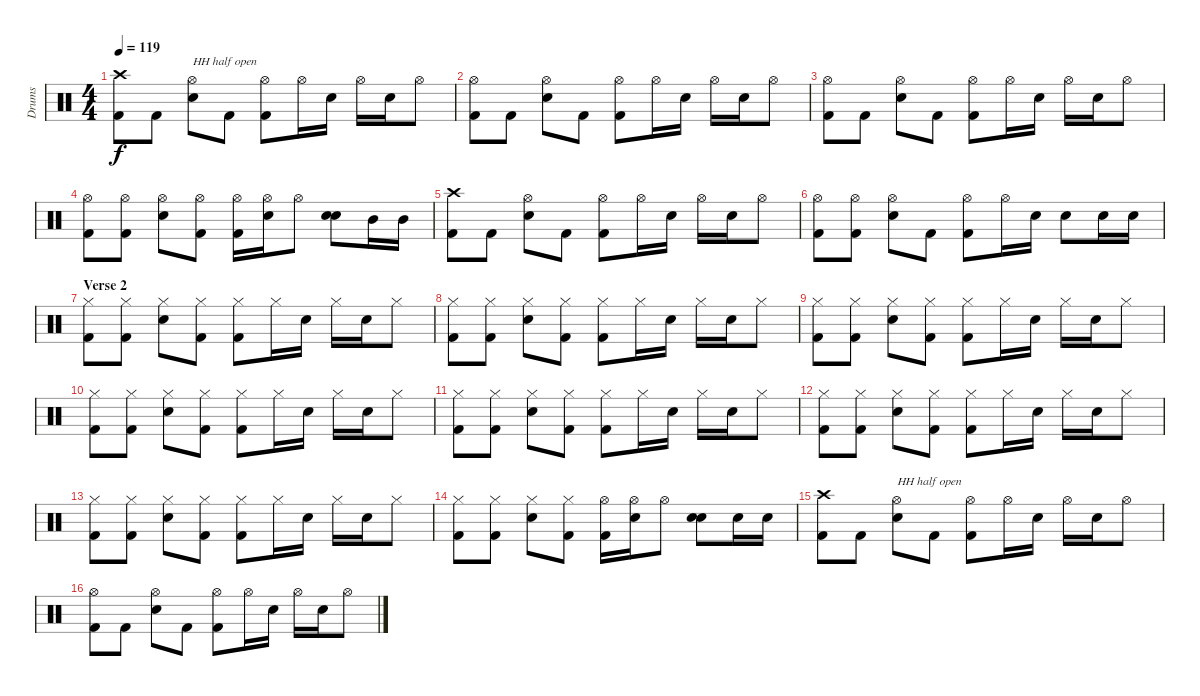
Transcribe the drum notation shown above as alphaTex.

\track ("Drums" "Drums") {instrument percussion}
\staff {score}
\articulation defaults
\ts (4 4)
\tempo 119
\clef neutral
\ks c
("Crash high (hit)" "Kick (hit) 2").8{dy f} "Kick (hit) 2".8 ("Hi-Hat (open)" "Electric Snare (hit)").8{txt "HH half open"} "Kick (hit) 2".8 ("Hi-Hat (open)" "Kick (hit) 2").8 "Hi-Hat (open)".16 "Electric Snare (hit)".16 "Hi-Hat (open)".16 "Electric Snare (hit)".16 "Hi-Hat (open)".8 |
("Hi-Hat (open)" "Kick (hit) 2").8 "Kick (hit) 2".8 ("Hi-Hat (open)" "Electric Snare (hit)").8 "Kick (hit) 2".8 ("Hi-Hat (open)" "Kick (hit) 2").8 "Hi-Hat (open)".16 "Electric Snare (hit)".16 "Hi-Hat (open)".16 "Electric Snare (hit)".16 "Hi-Hat (open)".8 |
("Hi-Hat (open)" "Kick (hit) 2").8 "Kick (hit) 2".8 ("Hi-Hat (open)" "Electric Snare (hit)").8 "Kick (hit) 2".8 ("Hi-Hat (open)" "Kick (hit) 2").8 "Hi-Hat (open)".16 "Electric Snare (hit)".16 "Hi-Hat (open)".16 "Electric Snare (hit)".16 "Hi-Hat (open)".8 |
("Hi-Hat (open)" "Kick (hit) 2").8 ("Hi-Hat (open)" "Kick (hit) 2").8 ("Hi-Hat (open)" "Electric Snare (hit)").8 ("Hi-Hat (open)" "Kick (hit) 2").8 ("Hi-Hat (open)" "Kick (hit) 2").16 ("Hi-Hat (open)" "Electric Snare (hit)").16 "Hi-Hat (open)".8 ("Electric Snare (hit)" "Electric Snare (hit)").8 "Mid Tom (hit)".16 "Mid Tom (hit)".16 |
("Crash high (hit)" "Kick (hit) 2").8 "Kick (hit) 2".8 ("Hi-Hat (open)" "Electric Snare (hit)").8 "Kick (hit) 2".8 ("Hi-Hat (open)" "Kick (hit) 2").8 "Hi-Hat (open)".16 "Electric Snare (hit)".16 "Hi-Hat (open)".16 "Electric Snare (hit)".16 "Hi-Hat (open)".8 |
("Hi-Hat (open)" "Kick (hit) 2").8 ("Hi-Hat (open)" "Kick (hit) 2").8 ("Hi-Hat (open)" "Electric Snare (hit)").8 "Kick (hit) 2".8 ("Hi-Hat (open)" "Kick (hit) 2").8 "Hi-Hat (open)".16 "Electric Snare (hit)".16 "Electric Snare (hit)".8 "Electric Snare (hit)".16 "Electric Snare (hit)".16 |
\section ("" "Verse 2")
("Hi-Hat (closed)" "Kick (hit) 2").8 ("Hi-Hat (closed)" "Kick (hit) 2").8 ("Hi-Hat (closed)" "Electric Snare (hit)").8 ("Hi-Hat (closed)" "Kick (hit) 2").8 ("Hi-Hat (closed)" "Kick (hit) 2").8 "Hi-Hat (closed)".16 "Electric Snare (hit)".16 "Hi-Hat (closed)".16 "Electric Snare (hit)".16 "Hi-Hat (closed)".8 |
("Hi-Hat (closed)" "Kick (hit) 2").8 ("Hi-Hat (closed)" "Kick (hit) 2").8 ("Hi-Hat (closed)" "Electric Snare (hit)").8 ("Hi-Hat (closed)" "Kick (hit) 2").8 ("Hi-Hat (closed)" "Kick (hit) 2").8 "Hi-Hat (closed)".16 "Electric Snare (hit)".16 "Hi-Hat (closed)".16 "Electric Snare (hit)".16 "Hi-Hat (closed)".8 |
("Hi-Hat (closed)" "Kick (hit) 2").8 ("Hi-Hat (closed)" "Kick (hit) 2").8 ("Hi-Hat (closed)" "Electric Snare (hit)").8 ("Hi-Hat (closed)" "Kick (hit) 2").8 ("Hi-Hat (closed)" "Kick (hit) 2").8 "Hi-Hat (closed)".16 "Electric Snare (hit)".16 "Hi-Hat (closed)".16 "Electric Snare (hit)".16 "Hi-Hat (closed)".8 |
("Hi-Hat (closed)" "Kick (hit) 2").8 ("Hi-Hat (closed)" "Kick (hit) 2").8 ("Hi-Hat (closed)" "Electric Snare (hit)").8 ("Hi-Hat (closed)" "Kick (hit) 2").8 ("Hi-Hat (closed)" "Kick (hit) 2").8 "Hi-Hat (closed)".16 "Electric Snare (hit)".16 "Hi-Hat (closed)".16 "Electric Snare (hit)".16 "Hi-Hat (closed)".8 |
("Hi-Hat (closed)" "Kick (hit) 2").8 ("Hi-Hat (closed)" "Kick (hit) 2").8 ("Hi-Hat (closed)" "Electric Snare (hit)").8 ("Hi-Hat (closed)" "Kick (hit) 2").8 ("Hi-Hat (closed)" "Kick (hit) 2").8 "Hi-Hat (closed)".16 "Electric Snare (hit)".16 "Hi-Hat (closed)".16 "Electric Snare (hit)".16 "Hi-Hat (closed)".8 |
("Hi-Hat (closed)" "Kick (hit) 2").8 ("Hi-Hat (closed)" "Kick (hit) 2").8 ("Hi-Hat (closed)" "Electric Snare (hit)").8 ("Hi-Hat (closed)" "Kick (hit) 2").8 ("Hi-Hat (closed)" "Kick (hit) 2").8 "Hi-Hat (closed)".16 "Electric Snare (hit)".16 "Hi-Hat (closed)".16 "Electric Snare (hit)".16 "Hi-Hat (closed)".8 |
("Hi-Hat (closed)" "Kick (hit) 2").8 ("Hi-Hat (closed)" "Kick (hit) 2").8 ("Hi-Hat (closed)" "Electric Snare (hit)").8 ("Hi-Hat (closed)" "Kick (hit) 2").8 ("Hi-Hat (closed)" "Kick (hit) 2").8 "Hi-Hat (closed)".16 "Electric Snare (hit)".16 "Hi-Hat (closed)".16 "Electric Snare (hit)".16 "Hi-Hat (closed)".8 |
("Hi-Hat (closed)" "Kick (hit) 2").8 ("Hi-Hat (closed)" "Kick (hit) 2").8 ("Hi-Hat (closed)" "Electric Snare (hit)").8 ("Hi-Hat (closed)" "Kick (hit) 2").8 ("Hi-Hat (open)" "Kick (hit) 2").16 ("Hi-Hat (open)" "Electric Snare (hit)").16 "Hi-Hat (open)".8 ("Electric Snare (hit)" "Electric Snare (hit)").8 "Electric Snare (hit)".16 "Electric Snare (hit)".16 |
("Crash high (hit)" "Kick (hit) 2").8 "Kick (hit) 2".8 ("Hi-Hat (open)" "Electric Snare (hit)").8{txt "HH half open"} "Kick (hit) 2".8 ("Hi-Hat (open)" "Kick (hit) 2").8 "Hi-Hat (open)".16 "Electric Snare (hit)".16 "Hi-Hat (open)".16 "Electric Snare (hit)".16 "Hi-Hat (open)".8 |
("Hi-Hat (open)" "Kick (hit) 2").8 "Kick (hit) 2".8 ("Hi-Hat (open)" "Electric Snare (hit)").8 "Kick (hit) 2".8 ("Hi-Hat (open)" "Kick (hit) 2").8 "Hi-Hat (open)".16 "Electric Snare (hit)".16 "Hi-Hat (open)".16 "Electric Snare (hit)".16 "Hi-Hat (open)".8
